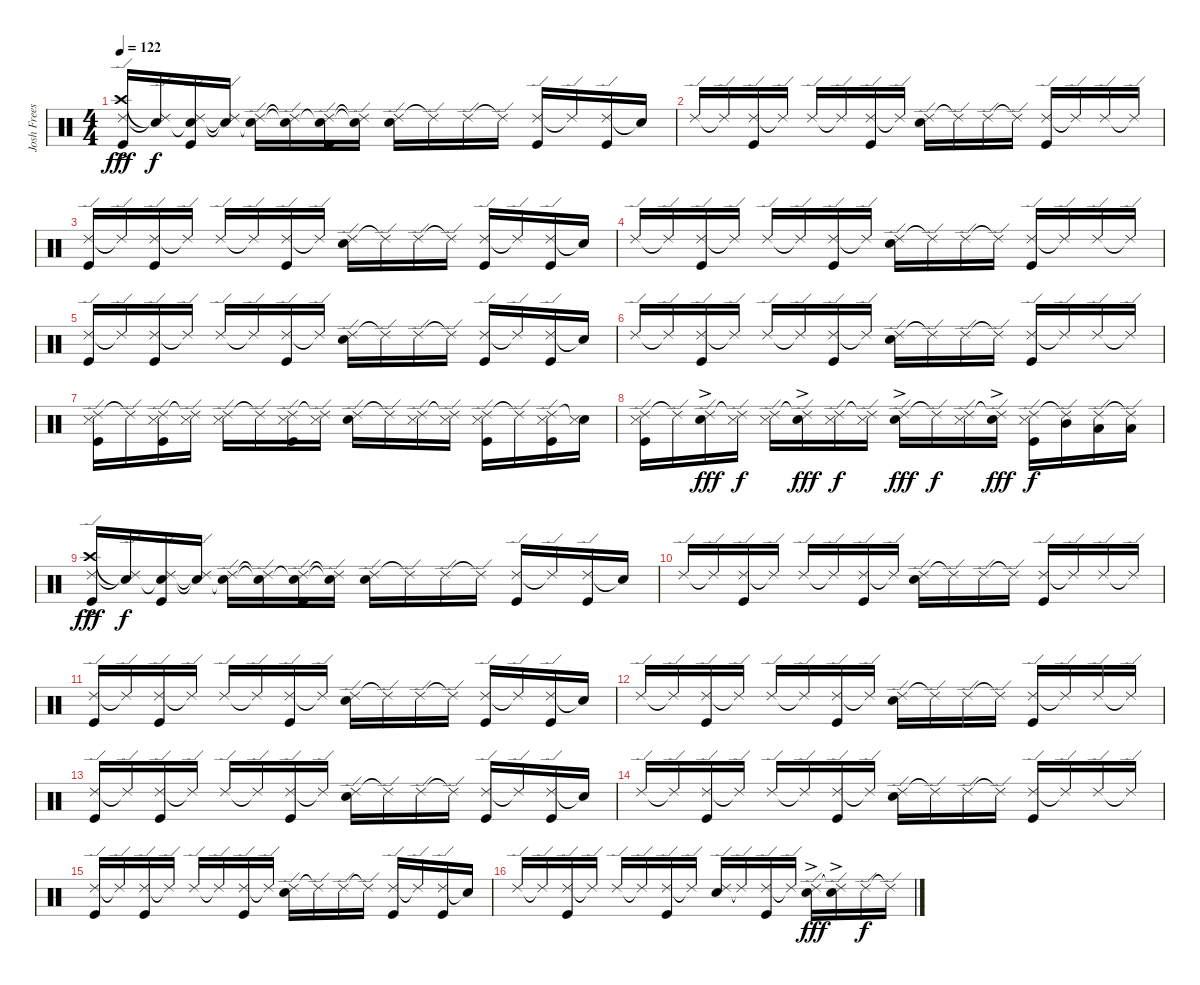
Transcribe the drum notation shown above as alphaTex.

\track ("Josh Freese" "Josh Frees") {instrument percussion}
\staff {score}
\articulation defaults
\ts (4 4)
\tempo 122
\clef neutral
\ks c
("Ride (edge) 2" "Crash high (hit)"{ac} "Kick (hit)").16{dy fff balance 8} ("Ride (edge) 2"{t} "Snare (hit)"{t}).16{dy f} ("Ride (edge) 2" "Snare (hit)"{t} "Kick (hit)").16 ("Ride (edge) 2"{t} "Snare (hit)"{t}).16 ("Ride (edge) 2" "Snare (hit)"{t}).16 ("Ride (edge) 2"{t} "Snare (hit)"{t}).16 ("Ride (edge) 2" "Snare (hit)"{t} "Kick (hit)").16 ("Ride (edge) 2"{t} "Snare (hit)"{t}).16 ("Ride (edge) 2" "Electric Snare (hit)").16 "Ride (edge) 2"{t}.16 "Ride (edge) 2".16 "Ride (edge) 2"{t}.16 ("Ride (edge) 2" "Kick (hit)").16 "Ride (edge) 2"{t}.16 ("Ride (edge) 2" "Kick (hit)").16 "Snare (hit)"{t}.16 |
"Ride (edge) 2".16 "Ride (edge) 2"{t}.16 ("Ride (edge) 2" "Kick (hit)").16 "Ride (edge) 2"{t}.16 "Ride (edge) 2".16 "Ride (edge) 2"{t}.16 ("Ride (edge) 2" "Kick (hit)").16 "Ride (edge) 2"{t}.16 ("Ride (edge) 2" "Electric Snare (hit)").16 "Ride (edge) 2"{t}.16 "Ride (edge) 2".16 "Ride (edge) 2"{t}.16 ("Ride (edge) 2" "Kick (hit)").16 "Ride (edge) 2"{t}.16 "Ride (edge) 2".16 "Ride (edge) 2"{t}.16 |
("Ride (edge) 2" "Kick (hit)").16 "Ride (edge) 2"{t}.16 ("Ride (edge) 2" "Kick (hit)").16 "Ride (edge) 2"{t}.16 "Ride (edge) 2".16 "Ride (edge) 2"{t}.16 ("Ride (edge) 2" "Kick (hit)").16 "Ride (edge) 2"{t}.16 ("Ride (edge) 2" "Electric Snare (hit)").16 "Ride (edge) 2"{t}.16 "Ride (edge) 2".16 "Ride (edge) 2"{t}.16 ("Ride (edge) 2" "Kick (hit)").16 "Ride (edge) 2"{t}.16 ("Ride (edge) 2" "Kick (hit)").16 "Snare (hit)"{t}.16 |
"Ride (edge) 2".16 "Ride (edge) 2"{t}.16 ("Ride (edge) 2" "Kick (hit)").16 "Ride (edge) 2"{t}.16 "Ride (edge) 2".16 "Ride (edge) 2"{t}.16 ("Ride (edge) 2" "Kick (hit)").16 "Ride (edge) 2"{t}.16 ("Ride (edge) 2" "Electric Snare (hit)").16 "Ride (edge) 2"{t}.16 "Ride (edge) 2".16 "Ride (edge) 2"{t}.16 ("Ride (edge) 2" "Kick (hit)").16 "Ride (edge) 2"{t}.16 "Ride (edge) 2".16 "Ride (edge) 2"{t}.16 |
("Ride (edge) 2" "Kick (hit)").16 "Ride (edge) 2"{t}.16 ("Ride (edge) 2" "Kick (hit)").16 "Ride (edge) 2"{t}.16 "Ride (edge) 2".16 "Ride (edge) 2"{t}.16 ("Ride (edge) 2" "Kick (hit)").16 "Ride (edge) 2"{t}.16 ("Ride (edge) 2" "Electric Snare (hit)").16 "Ride (edge) 2"{t}.16 "Ride (edge) 2".16 "Ride (edge) 2"{t}.16 ("Ride (edge) 2" "Kick (hit)").16 "Ride (edge) 2"{t}.16 ("Ride (edge) 2" "Kick (hit)").16 "Snare (hit)"{t}.16 |
"Ride (edge) 2".16 "Ride (edge) 2"{t}.16 ("Ride (edge) 2" "Kick (hit)").16 "Ride (edge) 2"{t}.16 "Ride (edge) 2".16 "Ride (edge) 2"{t}.16 ("Ride (edge) 2" "Kick (hit)").16 "Ride (edge) 2"{t}.16 ("Ride (edge) 2" "Electric Snare (hit)").16 "Ride (edge) 2"{t}.16 "Ride (edge) 2".16 "Ride (edge) 2"{t}.16 ("Ride (edge) 2" "Kick (hit)").16 "Ride (edge) 2"{t}.16 "Ride (edge) 2".16 "Ride (edge) 2"{t}.16 |
("Ride (edge) 2" "Snare (side stick) 3" "Kick (hit)").16 "Ride (edge) 2"{t}.16 ("Ride (edge) 2" "Snare (side stick) 3" "Kick (hit)").16 ("Ride (edge) 2"{t} "Snare (side stick) 3").16 ("Ride (edge) 2" "Snare (side stick) 3").16 "Ride (edge) 2"{t}.16 ("Ride (edge) 2" "Snare (side stick) 3" "Kick (hit)").16 ("Ride (edge) 2"{t} "Snare (side stick) 3").16 ("Ride (edge) 2" "Electric Snare (hit)").16 "Ride (edge) 2"{t}.16 ("Ride (edge) 2" "Snare (side stick) 3").16 ("Ride (edge) 2"{t} "Snare (side stick) 3").16 ("Ride (edge) 2" "Snare (side stick) 3" "Kick (hit)").16 "Ride (edge) 2"{t}.16 ("Ride (edge) 2" "Snare (side stick) 3" "Kick (hit)").16 ("Snare (hit)"{t} "Snare (side stick) 3").16 |
("Ride (edge) 2" "Snare (side stick) 3" "Kick (hit)").16 "Ride (edge) 2"{t}.16 ("Ride (edge) 2" "Electric Snare (hit)"{ac}).16{dy fff} ("Ride (edge) 2"{t} "Snare (side stick) 3").16{dy f} ("Ride (edge) 2" "Snare (side stick) 3").16 ("Ride (edge) 2"{t} "Electric Snare (hit)"{ac}).16{dy fff} ("Ride (edge) 2" "Snare (side stick) 3").16{dy f} ("Ride (edge) 2"{t} "Snare (side stick) 3").16 ("Ride (edge) 2" "Electric Snare (hit)"{ac}).16{dy fff} "Ride (edge) 2"{t}.16{dy f} ("Ride (edge) 2" "Snare (side stick) 3").16 ("Ride (edge) 2"{t} "Electric Snare (hit)"{ac}).16{dy fff} ("Ride (edge) 2" "Snare (side stick) 3" "Kick (hit)").16{dy f} ("Ride (edge) 2"{t} "Mid Tom (hit)").16 ("Ride (edge) 2" "Low Tom (hit)").16 ("Ride (edge) 2"{t} "Low Floor Tom (hit)").16 |
("Ride (edge) 2" "Crash high (hit)"{ac} "Kick (hit)").16{dy fff balance 8} ("Ride (edge) 2"{t} "Snare (hit)"{t}).16{dy f} ("Ride (edge) 2" "Snare (hit)"{t} "Kick (hit)").16 ("Ride (edge) 2"{t} "Snare (hit)"{t}).16 ("Ride (edge) 2" "Snare (hit)"{t}).16 ("Ride (edge) 2"{t} "Snare (hit)"{t}).16 ("Ride (edge) 2" "Snare (hit)"{t} "Kick (hit)").16 ("Ride (edge) 2"{t} "Snare (hit)"{t}).16 ("Ride (edge) 2" "Electric Snare (hit)").16 "Ride (edge) 2"{t}.16 "Ride (edge) 2".16 "Ride (edge) 2"{t}.16 ("Ride (edge) 2" "Kick (hit)").16 "Ride (edge) 2"{t}.16 ("Ride (edge) 2" "Kick (hit)").16 "Snare (hit)"{t}.16 |
"Ride (edge) 2".16 "Ride (edge) 2"{t}.16 ("Ride (edge) 2" "Kick (hit)").16 "Ride (edge) 2"{t}.16 "Ride (edge) 2".16 "Ride (edge) 2"{t}.16 ("Ride (edge) 2" "Kick (hit)").16 "Ride (edge) 2"{t}.16 ("Ride (edge) 2" "Electric Snare (hit)").16 "Ride (edge) 2"{t}.16 "Ride (edge) 2".16 "Ride (edge) 2"{t}.16 ("Ride (edge) 2" "Kick (hit)").16 "Ride (edge) 2"{t}.16 "Ride (edge) 2".16 "Ride (edge) 2"{t}.16 |
("Ride (edge) 2" "Kick (hit)").16{balance 8} "Ride (edge) 2"{t}.16 ("Ride (edge) 2" "Kick (hit)").16 "Ride (edge) 2"{t}.16 "Ride (edge) 2".16 "Ride (edge) 2"{t}.16 ("Ride (edge) 2" "Kick (hit)").16 "Ride (edge) 2"{t}.16 ("Ride (edge) 2" "Electric Snare (hit)").16 "Ride (edge) 2"{t}.16 "Ride (edge) 2".16 "Ride (edge) 2"{t}.16 ("Ride (edge) 2" "Kick (hit)").16 "Ride (edge) 2"{t}.16 ("Ride (edge) 2" "Kick (hit)").16 "Snare (hit)"{t}.16 |
"Ride (edge) 2".16 "Ride (edge) 2"{t}.16 ("Ride (edge) 2" "Kick (hit)").16 "Ride (edge) 2"{t}.16 "Ride (edge) 2".16 "Ride (edge) 2"{t}.16 ("Ride (edge) 2" "Kick (hit)").16 "Ride (edge) 2"{t}.16 ("Ride (edge) 2" "Electric Snare (hit)").16 "Ride (edge) 2"{t}.16 "Ride (edge) 2".16 "Ride (edge) 2"{t}.16 ("Ride (edge) 2" "Kick (hit)").16 "Ride (edge) 2"{t}.16 "Ride (edge) 2".16 "Ride (edge) 2"{t}.16 |
("Ride (edge) 2" "Kick (hit)").16{balance 8} "Ride (edge) 2"{t}.16 ("Ride (edge) 2" "Kick (hit)").16 "Ride (edge) 2"{t}.16 "Ride (edge) 2".16 "Ride (edge) 2"{t}.16 ("Ride (edge) 2" "Kick (hit)").16 "Ride (edge) 2"{t}.16 ("Ride (edge) 2" "Electric Snare (hit)").16 "Ride (edge) 2"{t}.16 "Ride (edge) 2".16 "Ride (edge) 2"{t}.16 ("Ride (edge) 2" "Kick (hit)").16 "Ride (edge) 2"{t}.16 ("Ride (edge) 2" "Kick (hit)").16 "Snare (hit)"{t}.16 |
"Ride (edge) 2".16 "Ride (edge) 2"{t}.16 ("Ride (edge) 2" "Kick (hit)").16 "Ride (edge) 2"{t}.16 "Ride (edge) 2".16 "Ride (edge) 2"{t}.16 ("Ride (edge) 2" "Kick (hit)").16 "Ride (edge) 2"{t}.16 ("Ride (edge) 2" "Electric Snare (hit)").16 "Ride (edge) 2"{t}.16 "Ride (edge) 2".16 "Ride (edge) 2"{t}.16 ("Ride (edge) 2" "Kick (hit)").16 "Ride (edge) 2"{t}.16 "Ride (edge) 2".16 "Ride (edge) 2"{t}.16 |
("Ride (edge) 2" "Kick (hit)").16{balance 8} "Ride (edge) 2"{t}.16 ("Ride (edge) 2" "Kick (hit)").16 "Ride (edge) 2"{t}.16 "Ride (edge) 2".16 "Ride (edge) 2"{t}.16 ("Ride (edge) 2" "Kick (hit)").16 "Ride (edge) 2"{t}.16 ("Ride (edge) 2" "Electric Snare (hit)").16 "Ride (edge) 2"{t}.16 "Ride (edge) 2".16 "Ride (edge) 2"{t}.16 ("Ride (edge) 2" "Kick (hit)").16 "Ride (edge) 2"{t}.16 ("Ride (edge) 2" "Kick (hit)").16 "Snare (hit)"{t}.16 |
"Ride (edge) 2".16 "Ride (edge) 2"{t}.16 ("Ride (edge) 2" "Kick (hit)").16 "Ride (edge) 2"{t}.16 "Ride (edge) 2".16 "Ride (edge) 2"{t}.16 ("Ride (edge) 2" "Kick (hit)").16 "Ride (edge) 2"{t}.16 ("Ride (edge) 2" "Electric Snare (hit)").16 "Ride (edge) 2"{t}.16 ("Ride (edge) 2" "Kick (hit)").16 "Ride (edge) 2"{t}.16 ("Ride (edge) 2" "Electric Snare (hit)"{ac}).16{dy fff} ("Ride (edge) 2"{t} "Electric Snare (hit)"{ac}).16 "Ride (edge) 2".16{dy f} "Ride (edge) 2"{t}.16
